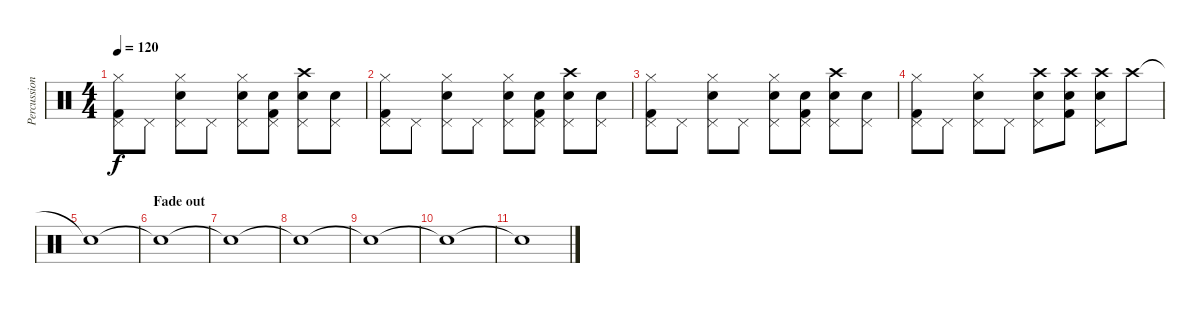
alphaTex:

\track ("Percussion" "Percussion") {instrument percussion}
\staff {score}
\articulation defaults
\ts (4 4)
\tempo 120
\clef neutral
\ks c
("Hi-Hat (closed)" "Pedal Hi-Hat (hit)" "Kick (hit) 2").8{dy f} "Pedal Hi-Hat (hit)".8 ("Hi-Hat (closed)" "Pedal Hi-Hat (hit)" "Snare (hit) 2").8 "Pedal Hi-Hat (hit)".8 ("Hi-Hat (closed)" "Pedal Hi-Hat (hit)" "Snare (hit) 2").8 ("Pedal Hi-Hat (hit)" "Kick (hit) 2" "Snare (hit) 2").8 ("Crash high (hit)" "Pedal Hi-Hat (hit)" "Snare (hit) 2").8 ("Pedal Hi-Hat (hit)" "Snare (hit) 2").8 |
("Hi-Hat (closed)" "Pedal Hi-Hat (hit)" "Kick (hit) 2").8 "Pedal Hi-Hat (hit)".8 ("Hi-Hat (closed)" "Pedal Hi-Hat (hit)" "Snare (hit) 2").8 "Pedal Hi-Hat (hit)".8 ("Hi-Hat (closed)" "Pedal Hi-Hat (hit)" "Snare (hit) 2").8 ("Pedal Hi-Hat (hit)" "Kick (hit) 2" "Snare (hit) 2").8 ("Crash high (hit)" "Pedal Hi-Hat (hit)" "Snare (hit) 2").8 ("Pedal Hi-Hat (hit)" "Snare (hit) 2").8 |
("Hi-Hat (closed)" "Pedal Hi-Hat (hit)" "Kick (hit) 2").8 "Pedal Hi-Hat (hit)".8 ("Hi-Hat (closed)" "Pedal Hi-Hat (hit)" "Snare (hit) 2").8 "Pedal Hi-Hat (hit)".8 ("Hi-Hat (closed)" "Pedal Hi-Hat (hit)" "Snare (hit) 2").8 ("Pedal Hi-Hat (hit)" "Kick (hit) 2" "Snare (hit) 2").8 ("Crash high (hit)" "Pedal Hi-Hat (hit)" "Snare (hit) 2").8 ("Pedal Hi-Hat (hit)" "Snare (hit) 2").8 |
("Hi-Hat (closed)" "Pedal Hi-Hat (hit)" "Kick (hit) 2").8 "Pedal Hi-Hat (hit)".8 ("Hi-Hat (closed)" "Pedal Hi-Hat (hit)" "Snare (hit) 2").8 "Pedal Hi-Hat (hit)".8 ("Crash high (hit)" "Pedal Hi-Hat (hit)" "Snare (hit) 2").8 ("Crash high (hit)" "Kick (hit) 2" "Snare (hit) 2").8 ("Crash high (hit)" "Pedal Hi-Hat (hit)" "Snare (hit) 2").8 "Crash high (hit)".8 |
"Snare (hit)"{t}.1 |
\section ("" "Fade out")
"Snare (hit)"{t}.1 |
"Snare (hit)"{t}.1 |
"Snare (hit)"{t}.1 |
"Snare (hit)"{t}.1 |
"Snare (hit)"{t}.1 |
"Snare (hit)"{t}.1
